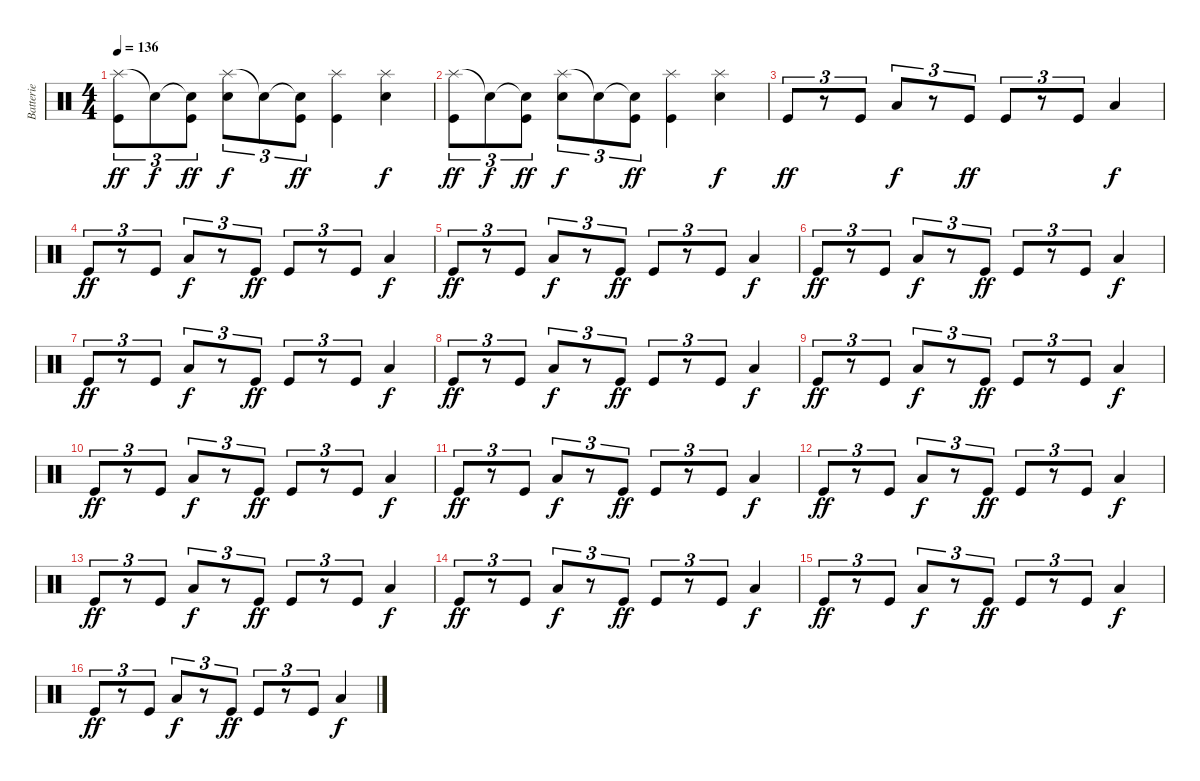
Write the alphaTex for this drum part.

\track ("Batterie" "Batterie") {instrument percussion}
\staff {score}
\articulation defaults
\ts (4 4)
\tempo 136
\clef neutral
\ks c
("Splash (hit)" "Kick (hit)").8{tu (3 2) dy ff} "Snare (hit)"{t}.8{tu (3 2) dy f} ("Snare (hit)"{t} "Kick (hit)").8{tu (3 2) dy ff} ("Splash (hit)" "Snare (hit) 2").8{tu (3 2) dy f} "Snare (hit)"{t}.8{tu (3 2)} ("Snare (hit)"{t} "Kick (hit)").8{tu (3 2) dy ff} ("Splash (hit)" "Kick (hit)").4 ("Splash (hit)" "Snare (hit) 2").4{dy f} |
("Splash (hit)" "Kick (hit)").8{tu (3 2) dy ff} "Snare (hit)"{t}.8{tu (3 2) dy f} ("Snare (hit)"{t} "Kick (hit)").8{tu (3 2) dy ff} ("Splash (hit)" "Snare (hit) 2").8{tu (3 2) dy f} "Snare (hit)"{t}.8{tu (3 2)} ("Snare (hit)"{t} "Kick (hit)").8{tu (3 2) dy ff} ("Splash (hit)" "Kick (hit)").4 ("Splash (hit)" "Snare (hit) 2").4{dy f} |
"Kick (hit)".8{tu (3 2) dy ff} r.8{tu (3 2)} "Kick (hit)".8{tu (3 2)} "Low Tom (hit)".8{tu (3 2) dy f} r.8{tu (3 2)} "Kick (hit)".8{tu (3 2) dy ff} "Kick (hit)".8{tu (3 2)} r.8{tu (3 2)} "Kick (hit)".8{tu (3 2)} "Low Tom (hit)".4{dy f} |
"Kick (hit)".8{tu (3 2) dy ff} r.8{tu (3 2)} "Kick (hit)".8{tu (3 2)} "Low Tom (hit)".8{tu (3 2) dy f} r.8{tu (3 2)} "Kick (hit)".8{tu (3 2) dy ff} "Kick (hit)".8{tu (3 2)} r.8{tu (3 2)} "Kick (hit)".8{tu (3 2)} "Low Tom (hit)".4{dy f} |
"Kick (hit)".8{tu (3 2) dy ff} r.8{tu (3 2)} "Kick (hit)".8{tu (3 2)} "Low Tom (hit)".8{tu (3 2) dy f} r.8{tu (3 2)} "Kick (hit)".8{tu (3 2) dy ff} "Kick (hit)".8{tu (3 2)} r.8{tu (3 2)} "Kick (hit)".8{tu (3 2)} "Low Tom (hit)".4{dy f} |
"Kick (hit)".8{tu (3 2) dy ff} r.8{tu (3 2)} "Kick (hit)".8{tu (3 2)} "Low Tom (hit)".8{tu (3 2) dy f} r.8{tu (3 2)} "Kick (hit)".8{tu (3 2) dy ff} "Kick (hit)".8{tu (3 2)} r.8{tu (3 2)} "Kick (hit)".8{tu (3 2)} "Low Tom (hit)".4{dy f} |
"Kick (hit)".8{tu (3 2) dy ff} r.8{tu (3 2)} "Kick (hit)".8{tu (3 2)} "Low Tom (hit)".8{tu (3 2) dy f} r.8{tu (3 2)} "Kick (hit)".8{tu (3 2) dy ff} "Kick (hit)".8{tu (3 2)} r.8{tu (3 2)} "Kick (hit)".8{tu (3 2)} "Low Tom (hit)".4{dy f} |
"Kick (hit)".8{tu (3 2) dy ff} r.8{tu (3 2)} "Kick (hit)".8{tu (3 2)} "Low Tom (hit)".8{tu (3 2) dy f} r.8{tu (3 2)} "Kick (hit)".8{tu (3 2) dy ff} "Kick (hit)".8{tu (3 2)} r.8{tu (3 2)} "Kick (hit)".8{tu (3 2)} "Low Tom (hit)".4{dy f} |
"Kick (hit)".8{tu (3 2) dy ff} r.8{tu (3 2)} "Kick (hit)".8{tu (3 2)} "Low Tom (hit)".8{tu (3 2) dy f} r.8{tu (3 2)} "Kick (hit)".8{tu (3 2) dy ff} "Kick (hit)".8{tu (3 2)} r.8{tu (3 2)} "Kick (hit)".8{tu (3 2)} "Low Tom (hit)".4{dy f} |
"Kick (hit)".8{tu (3 2) dy ff} r.8{tu (3 2)} "Kick (hit)".8{tu (3 2)} "Low Tom (hit)".8{tu (3 2) dy f} r.8{tu (3 2)} "Kick (hit)".8{tu (3 2) dy ff} "Kick (hit)".8{tu (3 2)} r.8{tu (3 2)} "Kick (hit)".8{tu (3 2)} "Low Tom (hit)".4{dy f} |
"Kick (hit)".8{tu (3 2) dy ff} r.8{tu (3 2)} "Kick (hit)".8{tu (3 2)} "Low Tom (hit)".8{tu (3 2) dy f} r.8{tu (3 2)} "Kick (hit)".8{tu (3 2) dy ff} "Kick (hit)".8{tu (3 2)} r.8{tu (3 2)} "Kick (hit)".8{tu (3 2)} "Low Tom (hit)".4{dy f} |
"Kick (hit)".8{tu (3 2) dy ff} r.8{tu (3 2)} "Kick (hit)".8{tu (3 2)} "Low Tom (hit)".8{tu (3 2) dy f} r.8{tu (3 2)} "Kick (hit)".8{tu (3 2) dy ff} "Kick (hit)".8{tu (3 2)} r.8{tu (3 2)} "Kick (hit)".8{tu (3 2)} "Low Tom (hit)".4{dy f} |
"Kick (hit)".8{tu (3 2) dy ff} r.8{tu (3 2)} "Kick (hit)".8{tu (3 2)} "Low Tom (hit)".8{tu (3 2) dy f} r.8{tu (3 2)} "Kick (hit)".8{tu (3 2) dy ff} "Kick (hit)".8{tu (3 2)} r.8{tu (3 2)} "Kick (hit)".8{tu (3 2)} "Low Tom (hit)".4{dy f} |
"Kick (hit)".8{tu (3 2) dy ff} r.8{tu (3 2)} "Kick (hit)".8{tu (3 2)} "Low Tom (hit)".8{tu (3 2) dy f} r.8{tu (3 2)} "Kick (hit)".8{tu (3 2) dy ff} "Kick (hit)".8{tu (3 2)} r.8{tu (3 2)} "Kick (hit)".8{tu (3 2)} "Low Tom (hit)".4{dy f} |
"Kick (hit)".8{tu (3 2) dy ff} r.8{tu (3 2)} "Kick (hit)".8{tu (3 2)} "Low Tom (hit)".8{tu (3 2) dy f} r.8{tu (3 2)} "Kick (hit)".8{tu (3 2) dy ff} "Kick (hit)".8{tu (3 2)} r.8{tu (3 2)} "Kick (hit)".8{tu (3 2)} "Low Tom (hit)".4{dy f} |
"Kick (hit)".8{tu (3 2) dy ff} r.8{tu (3 2)} "Kick (hit)".8{tu (3 2)} "Low Tom (hit)".8{tu (3 2) dy f} r.8{tu (3 2)} "Kick (hit)".8{tu (3 2) dy ff} "Kick (hit)".8{tu (3 2)} r.8{tu (3 2)} "Kick (hit)".8{tu (3 2)} "Low Tom (hit)".4{dy f}
